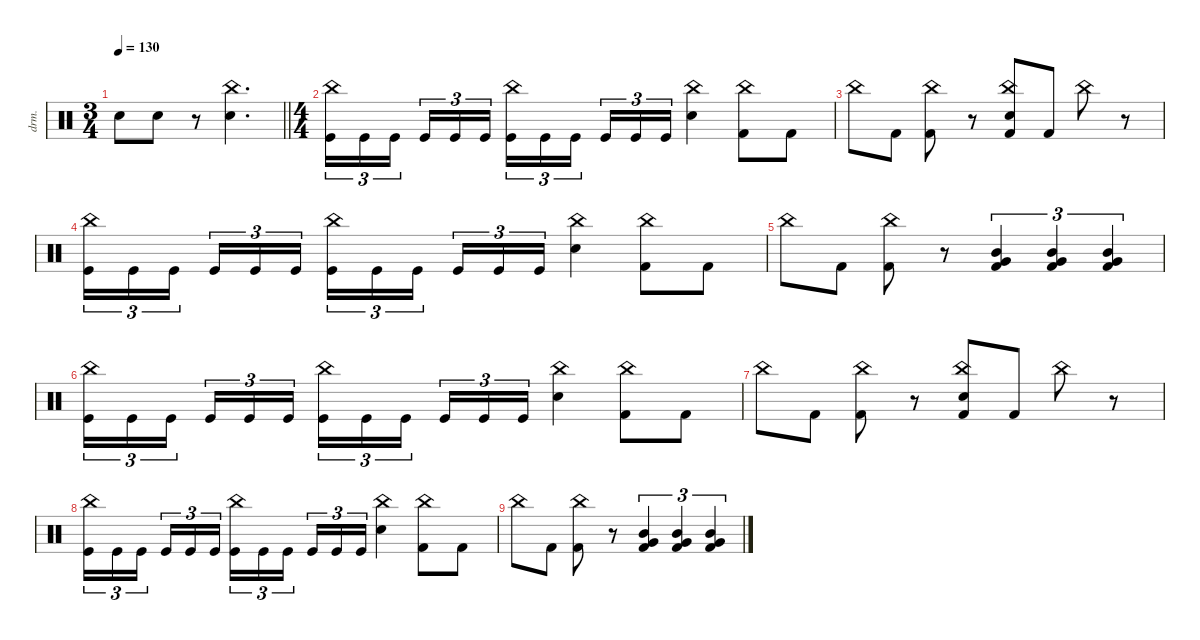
\defaultSystemsLayout 4
\hideDynamics
\bracketExtendMode nobrackets
\otherSystemsTrackNameOrientation horizontal
\track ("Manouche" "drm.") {instrument percussion}
\staff {score}
\articulation defaults
\ts (3 4)
\tempo 130
\clef neutral
\barLineRight lightlight
\ks c "Snare (hit) 2".8{dy f} "Snare (hit) 2".8
r.8 ("China (hit)" "Snare (hit) 2").4{d} |
\ts (4 4)
\beaming (8 2 2 2 2)
("Kick (hit)" "China (hit)").16{tu (3 2)} "Kick (hit)".16{tu (3 2)} "Kick (hit)".16{tu (3 2)} "Kick (hit)".16{tu (3 2)} "Kick (hit)".16{tu (3 2)} "Kick (hit)".16{tu (3 2)} ("China (hit)" "Kick (hit)").16{tu (3 2)} "Kick (hit)".16{tu (3 2)} "Kick (hit)".16{tu (3 2)} "Kick (hit)".16{tu (3 2)} "Kick (hit)".16{tu (3 2)} "Kick (hit)".16{tu (3 2)} ("China (hit)" "Snare (hit) 2").4 ("Kick (hit) 2" "China (hit)").8 "Kick (hit) 2".8 |
"China (hit)".8 "Kick (hit) 2".8 ("Kick (hit) 2" "China (hit)").8 r.8 ("Kick (hit) 2" "China (hit)" "Snare (hit) 2").8 "Kick (hit) 2".8 "China (hit)".8 r.8 |
("Kick (hit)" "China (hit)").16{tu (3 2)} "Kick (hit)".16{tu (3 2)} "Kick (hit)".16{tu (3 2)} "Kick (hit)".16{tu (3 2)} "Kick (hit)".16{tu (3 2)} "Kick (hit)".16{tu (3 2)} ("China (hit)" "Kick (hit)").16{tu (3 2)} "Kick (hit)".16{tu (3 2)} "Kick (hit)".16{tu (3 2)} "Kick (hit)".16{tu (3 2)} "Kick (hit)".16{tu (3 2)} "Kick (hit)".16{tu (3 2)} ("China (hit)" "Snare (hit) 2").4 ("Kick (hit) 2" "China (hit)").8 "Kick (hit) 2".8 |
"China (hit)".8 "Kick (hit) 2".8 ("Kick (hit) 2" "China (hit)").8 r.8 ("Kick (hit) 2" "Mid Tom (hit)" "Very Low Tom (hit)").4{tu (3 2)} ("Kick (hit) 2" "Mid Tom (hit)" "Very Low Tom (hit)").4{tu (3 2)} ("Kick (hit) 2" "Mid Tom (hit)" "Very Low Tom (hit)").4{tu (3 2)} |
("Kick (hit)" "China (hit)").16{tu (3 2)} "Kick (hit)".16{tu (3 2)} "Kick (hit)".16{tu (3 2)} "Kick (hit)".16{tu (3 2)} "Kick (hit)".16{tu (3 2)} "Kick (hit)".16{tu (3 2)} ("China (hit)" "Kick (hit)").16{tu (3 2)} "Kick (hit)".16{tu (3 2)} "Kick (hit)".16{tu (3 2)} "Kick (hit)".16{tu (3 2)} "Kick (hit)".16{tu (3 2)} "Kick (hit)".16{tu (3 2)} ("China (hit)" "Snare (hit) 2").4 ("Kick (hit) 2" "China (hit)").8 "Kick (hit) 2".8 |
"China (hit)".8 "Kick (hit) 2".8 ("Kick (hit) 2" "China (hit)").8 r.8 ("Kick (hit) 2" "China (hit)" "Snare (hit) 2").8 "Kick (hit) 2".8 "China (hit)".8 r.8 |
("Kick (hit)" "China (hit)").16{tu (3 2)} "Kick (hit)".16{tu (3 2)} "Kick (hit)".16{tu (3 2)} "Kick (hit)".16{tu (3 2)} "Kick (hit)".16{tu (3 2)} "Kick (hit)".16{tu (3 2)} ("China (hit)" "Kick (hit)").16{tu (3 2)} "Kick (hit)".16{tu (3 2)} "Kick (hit)".16{tu (3 2)} "Kick (hit)".16{tu (3 2)} "Kick (hit)".16{tu (3 2)} "Kick (hit)".16{tu (3 2)} ("China (hit)" "Snare (hit) 2").4 ("Kick (hit) 2" "China (hit)").8 "Kick (hit) 2".8 |
"China (hit)".8 "Kick (hit) 2".8 ("Kick (hit) 2" "China (hit)").8 r.8 ("Kick (hit) 2" "Mid Tom (hit)" "Very Low Tom (hit)").4{tu (3 2)} ("Kick (hit) 2" "Mid Tom (hit)" "Very Low Tom (hit)").4{tu (3 2)} ("Kick (hit) 2" "Mid Tom (hit)" "Very Low Tom (hit)").4{tu (3 2)}
